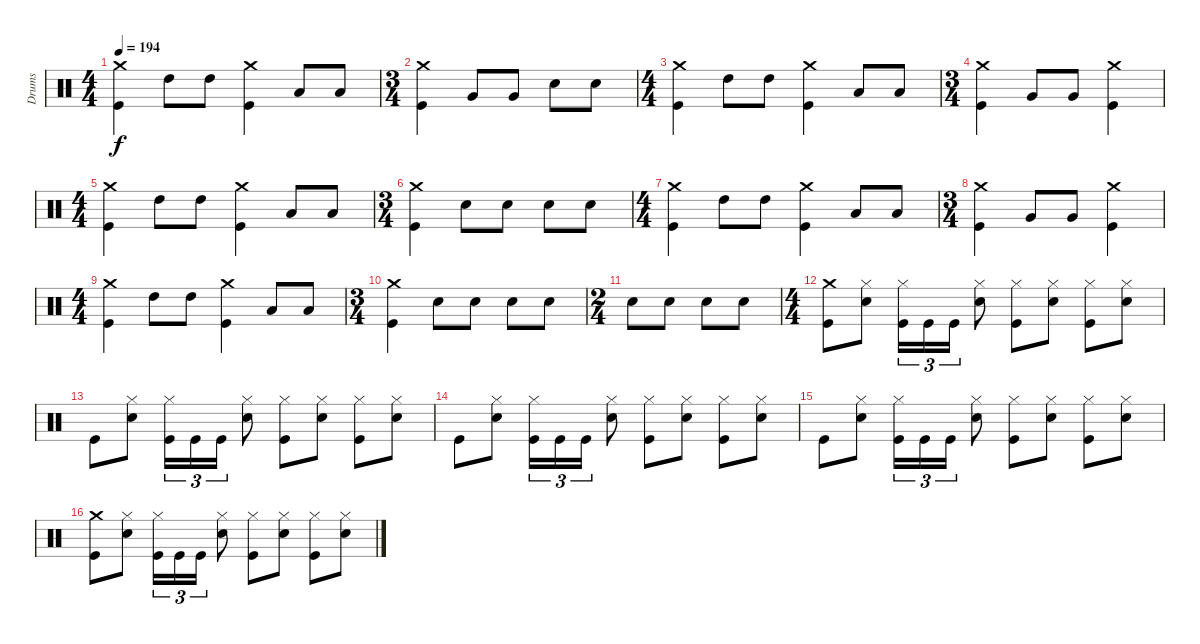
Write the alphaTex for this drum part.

\track ("Drums" "Drums") {instrument percussion}
\staff {score}
\articulation defaults
\ts (4 4)
\tempo 194
\clef neutral
\ks c
("Crash medium (hit)" "Kick (hit)").4{dy f} "High Tom (hit)".8 "High Tom (hit)".8 ("Crash medium (hit)" "Kick (hit)").4 "Low Tom (hit)".8 "Low Tom (hit)".8 |
\ts (3 4)
("Crash medium (hit)" "Kick (hit)").4 "Very Low Tom (hit)".8 "Very Low Tom (hit)".8 "Snare (hit) 2".8 "Snare (hit) 2".8 |
\ts (4 4)
("Crash medium (hit)" "Kick (hit)").4 "High Tom (hit)".8 "High Tom (hit)".8 ("Crash medium (hit)" "Kick (hit)").4 "Low Tom (hit)".8 "Low Tom (hit)".8 |
\ts (3 4)
("Crash medium (hit)" "Kick (hit)").4 "Very Low Tom (hit)".8 "Very Low Tom (hit)".8 ("Crash medium (hit)" "Kick (hit)").4 |
\ts (4 4)
("Crash medium (hit)" "Kick (hit)").4 "High Tom (hit)".8 "High Tom (hit)".8 ("Crash medium (hit)" "Kick (hit)").4 "Low Tom (hit)".8 "Low Tom (hit)".8 |
\ts (3 4)
("Crash medium (hit)" "Kick (hit)").4 "Snare (hit) 2".8 "Snare (hit) 2".8 "Snare (hit) 2".8 "Snare (hit) 2".8 |
\ts (4 4)
("Crash medium (hit)" "Kick (hit)").4 "High Tom (hit)".8 "High Tom (hit)".8 ("Crash medium (hit)" "Kick (hit)").4 "Low Tom (hit)".8 "Low Tom (hit)".8 |
\ts (3 4)
("Crash medium (hit)" "Kick (hit)").4 "Very Low Tom (hit)".8 "Very Low Tom (hit)".8 ("Crash medium (hit)" "Kick (hit)").4 |
\ts (4 4)
("Crash medium (hit)" "Kick (hit)").4 "High Tom (hit)".8 "High Tom (hit)".8 ("Crash medium (hit)" "Kick (hit)").4 "Low Tom (hit)".8 "Low Tom (hit)".8 |
\ts (3 4)
("Crash medium (hit)" "Kick (hit)").4 "Snare (hit) 2".8 "Snare (hit) 2".8 "Snare (hit) 2".8 "Snare (hit) 2".8 |
\ts (2 4)
"Snare (hit) 2".8 "Snare (hit) 2".8 "Snare (hit) 2".8 "Snare (hit) 2".8 |
\ts (4 4)
("Crash medium (hit)" "Kick (hit)").8 ("Hi-Hat (closed)" "Snare (hit) 2").8 ("Hi-Hat (closed)" "Kick (hit)").16{tu (3 2)} "Kick (hit)".16{tu (3 2)} "Kick (hit)".16{tu (3 2)} ("Hi-Hat (closed)" "Snare (hit) 2").8 ("Hi-Hat (closed)" "Kick (hit)").8 ("Hi-Hat (closed)" "Snare (hit) 2").8 ("Hi-Hat (closed)" "Kick (hit)").8 ("Hi-Hat (closed)" "Snare (hit) 2").8 |
"Kick (hit)".8 ("Hi-Hat (closed)" "Snare (hit) 2").8 ("Hi-Hat (closed)" "Kick (hit)").16{tu (3 2)} "Kick (hit)".16{tu (3 2)} "Kick (hit)".16{tu (3 2)} ("Hi-Hat (closed)" "Snare (hit) 2").8 ("Hi-Hat (closed)" "Kick (hit)").8 ("Hi-Hat (closed)" "Snare (hit) 2").8 ("Hi-Hat (closed)" "Kick (hit)").8 ("Hi-Hat (closed)" "Snare (hit) 2").8 |
"Kick (hit)".8 ("Hi-Hat (closed)" "Snare (hit) 2").8 ("Hi-Hat (closed)" "Kick (hit)").16{tu (3 2)} "Kick (hit)".16{tu (3 2)} "Kick (hit)".16{tu (3 2)} ("Hi-Hat (closed)" "Snare (hit) 2").8 ("Hi-Hat (closed)" "Kick (hit)").8 ("Hi-Hat (closed)" "Snare (hit) 2").8 ("Hi-Hat (closed)" "Kick (hit)").8 ("Hi-Hat (closed)" "Snare (hit) 2").8 |
"Kick (hit)".8 ("Hi-Hat (closed)" "Snare (hit) 2").8 ("Hi-Hat (closed)" "Kick (hit)").16{tu (3 2)} "Kick (hit)".16{tu (3 2)} "Kick (hit)".16{tu (3 2)} ("Hi-Hat (closed)" "Snare (hit) 2").8 ("Hi-Hat (closed)" "Kick (hit)").8 ("Hi-Hat (closed)" "Snare (hit) 2").8 ("Hi-Hat (closed)" "Kick (hit)").8 ("Hi-Hat (closed)" "Snare (hit) 2").8 |
("Crash medium (hit)" "Kick (hit)").8 ("Hi-Hat (closed)" "Snare (hit) 2").8 ("Hi-Hat (closed)" "Kick (hit)").16{tu (3 2)} "Kick (hit)".16{tu (3 2)} "Kick (hit)".16{tu (3 2)} ("Hi-Hat (closed)" "Snare (hit) 2").8 ("Hi-Hat (closed)" "Kick (hit)").8 ("Hi-Hat (closed)" "Snare (hit) 2").8 ("Hi-Hat (closed)" "Kick (hit)").8 ("Hi-Hat (closed)" "Snare (hit) 2").8
